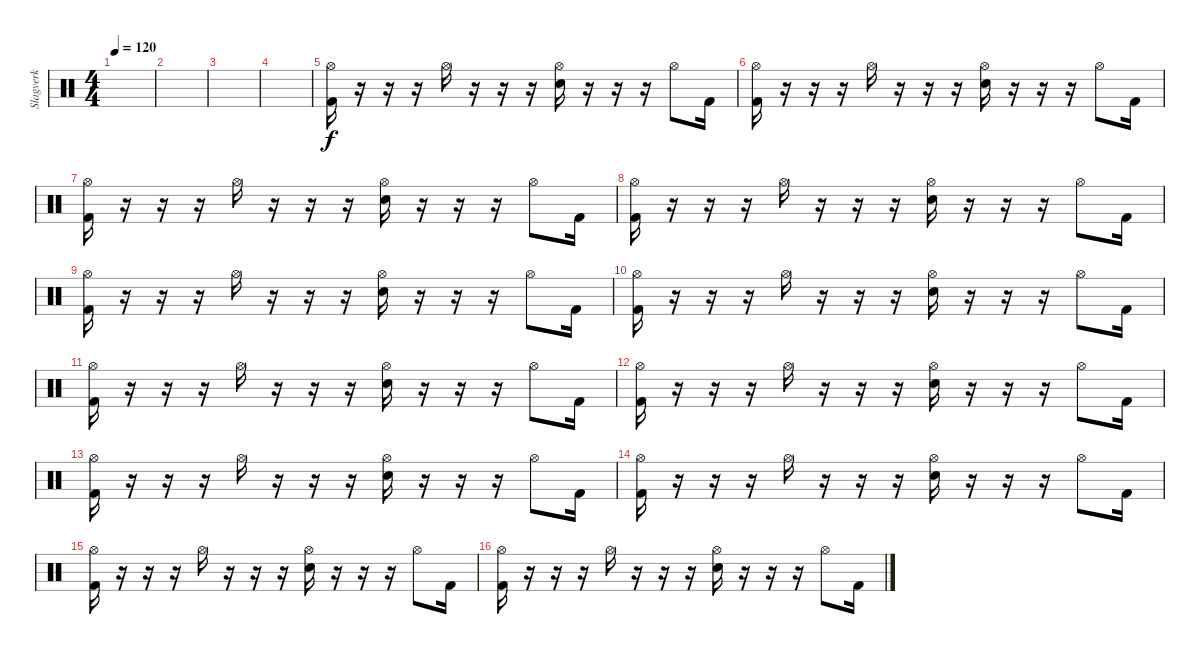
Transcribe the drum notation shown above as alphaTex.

\track ("Slagverk" "Slagverk") {instrument percussion}
\staff {score}
\articulation defaults
\ts (4 4)
\tempo 120
\clef neutral
\ks c
|
|
|
|
("Hi-Hat (open)" "Kick (hit) 2").16 r.16 r.16 r.16 "Hi-Hat (open)".16 r.16 r.16 r.16 ("Hi-Hat (open)" "Electric Snare (hit)").16 r.16 r.16 r.16 "Hi-Hat (open)".8 "Kick (hit) 2".16 |
("Hi-Hat (open)" "Kick (hit) 2").16 r.16 r.16 r.16 "Hi-Hat (open)".16 r.16 r.16 r.16 ("Hi-Hat (open)" "Electric Snare (hit)").16 r.16 r.16 r.16 "Hi-Hat (open)".8 "Kick (hit) 2".16 |
("Hi-Hat (open)" "Kick (hit) 2").16 r.16 r.16 r.16 "Hi-Hat (open)".16 r.16 r.16 r.16 ("Hi-Hat (open)" "Electric Snare (hit)").16 r.16 r.16 r.16 "Hi-Hat (open)".8 "Kick (hit) 2".16 |
("Hi-Hat (open)" "Kick (hit) 2").16 r.16 r.16 r.16 "Hi-Hat (open)".16 r.16 r.16 r.16 ("Hi-Hat (open)" "Electric Snare (hit)").16 r.16 r.16 r.16 "Hi-Hat (open)".8 "Kick (hit) 2".16 |
("Hi-Hat (open)" "Kick (hit) 2").16 r.16 r.16 r.16 "Hi-Hat (open)".16 r.16 r.16 r.16 ("Hi-Hat (open)" "Electric Snare (hit)").16 r.16 r.16 r.16 "Hi-Hat (open)".8 "Kick (hit) 2".16 |
("Hi-Hat (open)" "Kick (hit) 2").16 r.16 r.16 r.16 "Hi-Hat (open)".16 r.16 r.16 r.16 ("Hi-Hat (open)" "Electric Snare (hit)").16 r.16 r.16 r.16 "Hi-Hat (open)".8 "Kick (hit) 2".16 |
("Hi-Hat (open)" "Kick (hit) 2").16 r.16 r.16 r.16 "Hi-Hat (open)".16 r.16 r.16 r.16 ("Hi-Hat (open)" "Electric Snare (hit)").16 r.16 r.16 r.16 "Hi-Hat (open)".8 "Kick (hit) 2".16 |
("Hi-Hat (open)" "Kick (hit) 2").16 r.16 r.16 r.16 "Hi-Hat (open)".16 r.16 r.16 r.16 ("Hi-Hat (open)" "Electric Snare (hit)").16 r.16 r.16 r.16 "Hi-Hat (open)".8 "Kick (hit) 2".16 |
("Hi-Hat (open)" "Kick (hit) 2").16 r.16 r.16 r.16 "Hi-Hat (open)".16 r.16 r.16 r.16 ("Hi-Hat (open)" "Electric Snare (hit)").16 r.16 r.16 r.16 "Hi-Hat (open)".8 "Kick (hit) 2".16 |
("Hi-Hat (open)" "Kick (hit) 2").16 r.16 r.16 r.16 "Hi-Hat (open)".16 r.16 r.16 r.16 ("Hi-Hat (open)" "Electric Snare (hit)").16 r.16 r.16 r.16 "Hi-Hat (open)".8 "Kick (hit) 2".16 |
("Hi-Hat (open)" "Kick (hit) 2").16 r.16 r.16 r.16 "Hi-Hat (open)".16 r.16 r.16 r.16 ("Hi-Hat (open)" "Electric Snare (hit)").16 r.16 r.16 r.16 "Hi-Hat (open)".8 "Kick (hit) 2".16 |
("Hi-Hat (open)" "Kick (hit) 2").16 r.16 r.16 r.16 "Hi-Hat (open)".16 r.16 r.16 r.16 ("Hi-Hat (open)" "Electric Snare (hit)").16 r.16 r.16 r.16 "Hi-Hat (open)".8 "Kick (hit) 2".16
